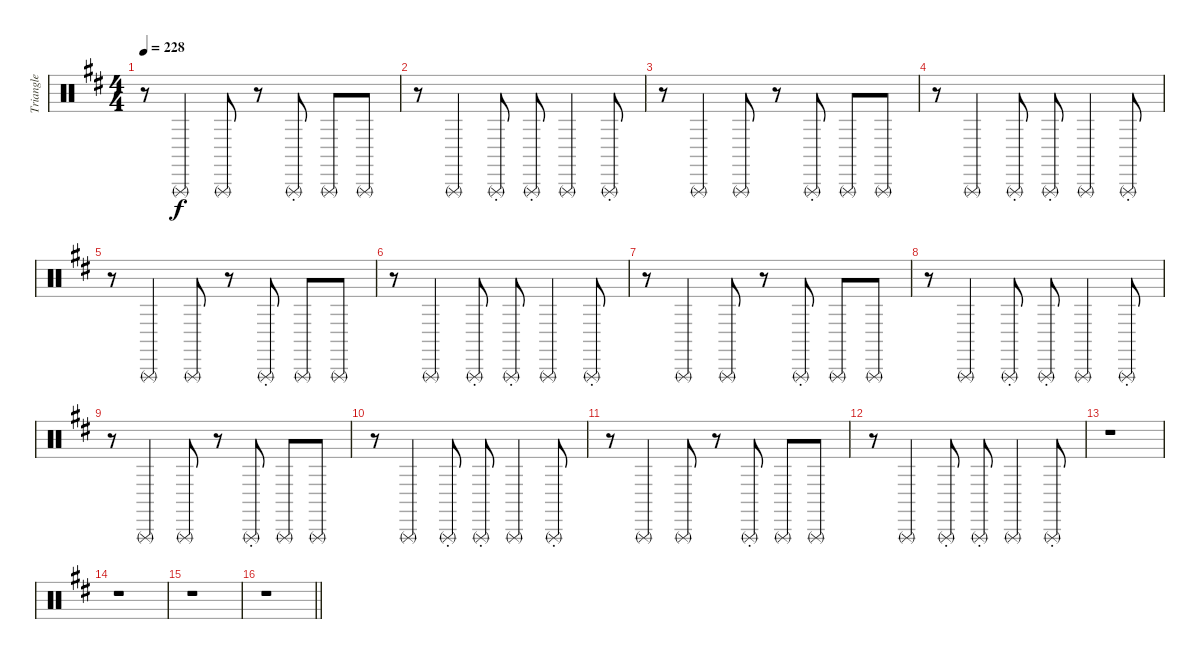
\track ("Triangle" "Triangle") {instrument percussion}
\staff {score}
\articulation defaults
\ts (4 4)
\tempo 228
\clef neutral
\ks d
r.8{dy f} "Triangle (rnute)".4 "Triangle (rnute)".8 r.8 "Triangle (rnute)"{st}.8 "Triangle (rnute)".8 "Triangle (rnute)".8 |
r.8 "Triangle (rnute)".4 "Triangle (rnute)"{st}.8 "Triangle (rnute)"{st}.8 "Triangle (rnute)".4 "Triangle (rnute)"{st}.8 |
r.8 "Triangle (rnute)".4 "Triangle (rnute)".8 r.8 "Triangle (rnute)"{st}.8 "Triangle (rnute)".8 "Triangle (rnute)".8 |
r.8 "Triangle (rnute)".4 "Triangle (rnute)"{st}.8 "Triangle (rnute)"{st}.8 "Triangle (rnute)".4 "Triangle (rnute)"{st}.8 |
r.8 "Triangle (rnute)".4 "Triangle (rnute)".8 r.8 "Triangle (rnute)"{st}.8 "Triangle (rnute)".8 "Triangle (rnute)".8 |
r.8 "Triangle (rnute)".4 "Triangle (rnute)"{st}.8 "Triangle (rnute)"{st}.8 "Triangle (rnute)".4 "Triangle (rnute)"{st}.8 |
r.8 "Triangle (rnute)".4 "Triangle (rnute)".8 r.8 "Triangle (rnute)"{st}.8 "Triangle (rnute)".8 "Triangle (rnute)".8 |
r.8 "Triangle (rnute)".4 "Triangle (rnute)"{st}.8 "Triangle (rnute)"{st}.8 "Triangle (rnute)".4 "Triangle (rnute)"{st}.8 |
r.8 "Triangle (rnute)".4 "Triangle (rnute)".8 r.8 "Triangle (rnute)"{st}.8 "Triangle (rnute)".8 "Triangle (rnute)".8 |
r.8 "Triangle (rnute)".4 "Triangle (rnute)"{st}.8 "Triangle (rnute)"{st}.8 "Triangle (rnute)".4 "Triangle (rnute)"{st}.8 |
r.8 "Triangle (rnute)".4 "Triangle (rnute)".8 r.8 "Triangle (rnute)"{st}.8 "Triangle (rnute)".8 "Triangle (rnute)".8 |
r.8 "Triangle (rnute)".4 "Triangle (rnute)"{st}.8 "Triangle (rnute)"{st}.8 "Triangle (rnute)".4 "Triangle (rnute)"{st}.8 |
r.1 |
r.1 |
r.1 |
\barLineRight lightlight
r.1
